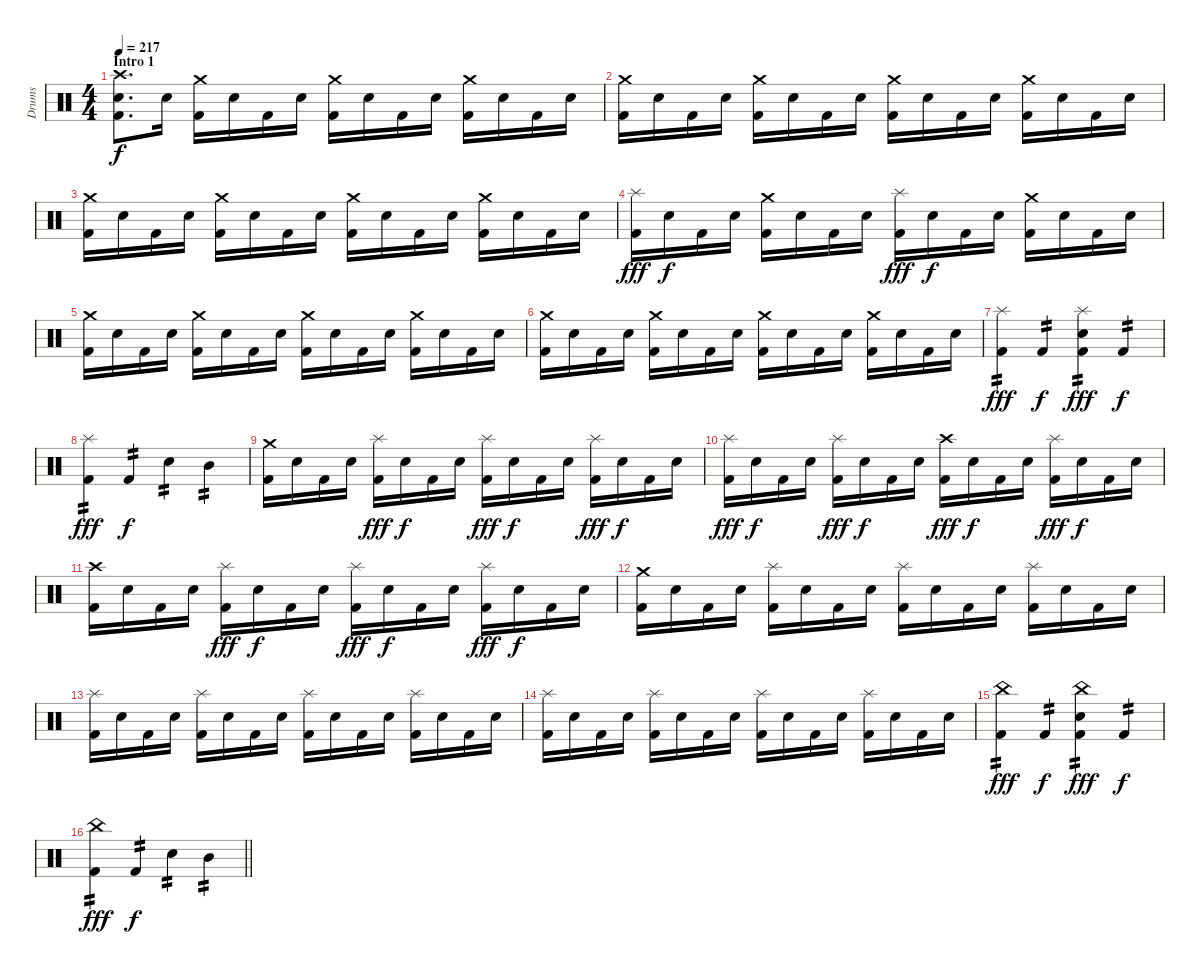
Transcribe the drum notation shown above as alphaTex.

\track ("Drums" "Drums") {instrument percussion}
\staff {score}
\articulation defaults
\ts (4 4)
\section ("" "Intro 1")
\tempo 217
\clef neutral
\ks c
("Crash high (hit)" "Electric Snare (hit)" "Kick (hit) 2").8{d dy f} "Electric Snare (hit)".16 ("Crash medium (hit)" "Kick (hit) 2").16 "Electric Snare (hit)".16 "Kick (hit) 2".16 "Electric Snare (hit)".16 ("Crash medium (hit)" "Kick (hit) 2").16 "Electric Snare (hit)".16 "Kick (hit) 2".16 "Electric Snare (hit)".16 ("Crash medium (hit)" "Kick (hit) 2").16 "Electric Snare (hit)".16 "Kick (hit) 2".16 "Electric Snare (hit)".16 |
("Crash medium (hit)" "Kick (hit) 2").16 "Electric Snare (hit)".16 "Kick (hit) 2".16 "Electric Snare (hit)".16 ("Crash medium (hit)" "Kick (hit) 2").16 "Electric Snare (hit)".16 "Kick (hit) 2".16 "Electric Snare (hit)".16 ("Crash medium (hit)" "Kick (hit) 2").16 "Electric Snare (hit)".16 "Kick (hit) 2".16 "Electric Snare (hit)".16 ("Crash medium (hit)" "Kick (hit) 2").16 "Electric Snare (hit)".16 "Kick (hit) 2".16 "Electric Snare (hit)".16 |
("Crash medium (hit)" "Kick (hit) 2").16 "Electric Snare (hit)".16 "Kick (hit) 2".16 "Electric Snare (hit)".16 ("Crash medium (hit)" "Kick (hit) 2").16 "Electric Snare (hit)".16 "Kick (hit) 2".16 "Electric Snare (hit)".16 ("Crash medium (hit)" "Kick (hit) 2").16 "Electric Snare (hit)".16 "Kick (hit) 2".16 "Electric Snare (hit)".16 ("Crash medium (hit)" "Kick (hit) 2").16 "Electric Snare (hit)".16 "Kick (hit) 2".16 "Electric Snare (hit)".16 |
("Splash (hit)" "Kick (hit) 2").16{dy fff} "Electric Snare (hit)".16{dy f} "Kick (hit) 2".16 "Electric Snare (hit)".16 ("Crash medium (hit)" "Kick (hit) 2").16 "Electric Snare (hit)".16 "Kick (hit) 2".16 "Electric Snare (hit)".16 ("Splash (hit)" "Kick (hit) 2").16{dy fff} "Electric Snare (hit)".16{dy f} "Kick (hit) 2".16 "Electric Snare (hit)".16 ("Crash medium (hit)" "Kick (hit) 2").16 "Electric Snare (hit)".16 "Kick (hit) 2".16 "Electric Snare (hit)".16 |
("Crash medium (hit)" "Kick (hit) 2").16 "Electric Snare (hit)".16 "Kick (hit) 2".16 "Electric Snare (hit)".16 ("Crash medium (hit)" "Kick (hit) 2").16 "Electric Snare (hit)".16 "Kick (hit) 2".16 "Electric Snare (hit)".16 ("Crash medium (hit)" "Kick (hit) 2").16 "Electric Snare (hit)".16 "Kick (hit) 2".16 "Electric Snare (hit)".16 ("Crash medium (hit)" "Kick (hit) 2").16 "Electric Snare (hit)".16 "Kick (hit) 2".16 "Electric Snare (hit)".16 |
("Crash medium (hit)" "Kick (hit) 2").16 "Electric Snare (hit)".16 "Kick (hit) 2".16 "Electric Snare (hit)".16 ("Crash medium (hit)" "Kick (hit) 2").16 "Electric Snare (hit)".16 "Kick (hit) 2".16 "Electric Snare (hit)".16 ("Crash medium (hit)" "Kick (hit) 2").16 "Electric Snare (hit)".16 "Kick (hit) 2".16 "Electric Snare (hit)".16 ("Crash medium (hit)" "Kick (hit) 2").16 "Electric Snare (hit)".16 "Kick (hit) 2".16 "Electric Snare (hit)".16 |
("Splash (hit)" "Kick (hit) 2").4{tp 2 dy fff} "Kick (hit) 2".4{tp 2 dy f} ("Splash (hit)" "Electric Snare (hit)" "Kick (hit) 2").4{tp 2 dy fff} "Kick (hit) 2".4{tp 2 dy f} |
("Splash (hit)" "Kick (hit) 2").4{tp 2 dy fff} "Kick (hit) 2".4{tp 2 dy f} "Electric Snare (hit)".4{tp 2} "Mid Tom (hit)".4{tp 2} |
("Crash medium (hit)" "Kick (hit) 2").16 "Electric Snare (hit)".16 "Kick (hit) 2".16 "Electric Snare (hit)".16 ("Splash (hit)" "Kick (hit) 2").16{dy fff} "Electric Snare (hit)".16{dy f} "Kick (hit) 2".16 "Electric Snare (hit)".16 ("Splash (hit)" "Kick (hit) 2").16{dy fff} "Electric Snare (hit)".16{dy f} "Kick (hit) 2".16 "Electric Snare (hit)".16 ("Splash (hit)" "Kick (hit) 2").16{dy fff} "Electric Snare (hit)".16{dy f} "Kick (hit) 2".16 "Electric Snare (hit)".16 |
("Splash (hit)" "Kick (hit) 2").16{dy fff} "Electric Snare (hit)".16{dy f} "Kick (hit) 2".16 "Electric Snare (hit)".16 ("Splash (hit)" "Kick (hit) 2").16{dy fff} "Electric Snare (hit)".16{dy f} "Kick (hit) 2".16 "Electric Snare (hit)".16 ("Crash high (hit)" "Kick (hit) 2").16{dy fff} "Electric Snare (hit)".16{dy f} "Kick (hit) 2".16 "Electric Snare (hit)".16 ("Splash (hit)" "Kick (hit) 2").16{dy fff} "Electric Snare (hit)".16{dy f} "Kick (hit) 2".16 "Electric Snare (hit)".16 |
("Crash high (hit)" "Kick (hit) 2").16 "Electric Snare (hit)".16 "Kick (hit) 2".16 "Electric Snare (hit)".16 ("Splash (hit)" "Kick (hit) 2").16{dy fff} "Electric Snare (hit)".16{dy f} "Kick (hit) 2".16 "Electric Snare (hit)".16 ("Splash (hit)" "Kick (hit) 2").16{dy fff} "Electric Snare (hit)".16{dy f} "Kick (hit) 2".16 "Electric Snare (hit)".16 ("Splash (hit)" "Kick (hit) 2").16{dy fff} "Electric Snare (hit)".16{dy f} "Kick (hit) 2".16 "Electric Snare (hit)".16 |
("Crash medium (hit)" "Kick (hit) 2").16 "Electric Snare (hit)".16 "Kick (hit) 2".16 "Electric Snare (hit)".16 ("Splash (hit)" "Kick (hit) 2").16 "Electric Snare (hit)".16 "Kick (hit) 2".16 "Electric Snare (hit)".16 ("Splash (hit)" "Kick (hit) 2").16 "Electric Snare (hit)".16 "Kick (hit) 2".16 "Electric Snare (hit)".16 ("Splash (hit)" "Kick (hit) 2").16 "Electric Snare (hit)".16 "Kick (hit) 2".16 "Electric Snare (hit)".16 |
("Splash (hit)" "Kick (hit) 2").16 "Electric Snare (hit)".16 "Kick (hit) 2".16 "Electric Snare (hit)".16 ("Splash (hit)" "Kick (hit) 2").16 "Electric Snare (hit)".16 "Kick (hit) 2".16 "Electric Snare (hit)".16 ("Splash (hit)" "Kick (hit) 2").16 "Electric Snare (hit)".16 "Kick (hit) 2".16 "Electric Snare (hit)".16 ("Splash (hit)" "Kick (hit) 2").16 "Electric Snare (hit)".16 "Kick (hit) 2".16 "Electric Snare (hit)".16 |
("Splash (hit)" "Kick (hit) 2").16 "Electric Snare (hit)".16 "Kick (hit) 2".16 "Electric Snare (hit)".16 ("Splash (hit)" "Kick (hit) 2").16 "Electric Snare (hit)".16 "Kick (hit) 2".16 "Electric Snare (hit)".16 ("Splash (hit)" "Kick (hit) 2").16 "Electric Snare (hit)".16 "Kick (hit) 2".16 "Electric Snare (hit)".16 ("Splash (hit)" "Kick (hit) 2").16 "Electric Snare (hit)".16 "Kick (hit) 2".16 "Electric Snare (hit)".16 |
("China (hit)" "Kick (hit) 2").4{tp 2 dy fff} "Kick (hit) 2".4{tp 2 dy f} ("China (hit)" "Electric Snare (hit)" "Kick (hit) 2").4{tp 2 dy fff} "Kick (hit) 2".4{tp 2 dy f} |
\barLineRight lightlight
("China (hit)" "Kick (hit) 2").4{tp 2 dy fff} "Kick (hit) 2".4{tp 2 dy f} "Electric Snare (hit)".4{tp 2} "Mid Tom (hit)".4{tp 2}
